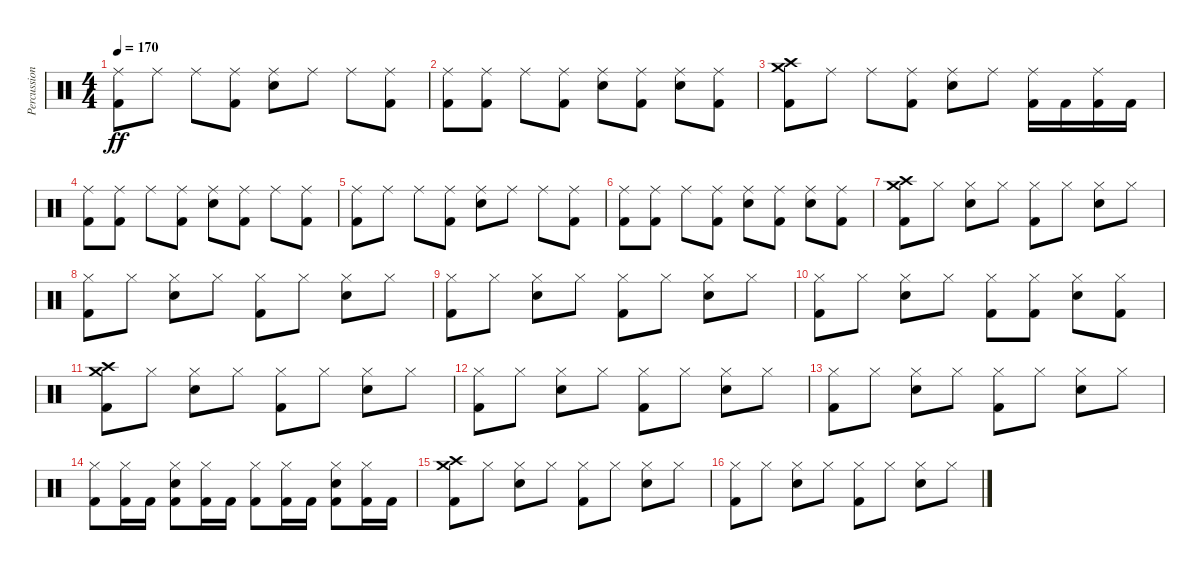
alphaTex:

\track ("Percussion" "Percussion") {instrument percussion}
\staff {score}
\articulation defaults
\ts (4 4)
\tempo 170
\clef neutral
\ks c
("Kick (hit) 2" "Ride (middle)").8{dy ff} "Ride (middle)".8 "Ride (middle)".8 ("Kick (hit) 2" "Ride (middle)").8 ("Electric Snare (hit)" "Ride (middle)").8 "Ride (middle)".8 "Ride (middle)".8 ("Kick (hit) 2" "Ride (middle)").8 |
("Kick (hit) 2" "Ride (middle)").8 ("Kick (hit) 2" "Ride (middle)").8 "Ride (middle)".8 ("Kick (hit) 2" "Ride (middle)").8 ("Electric Snare (hit)" "Ride (middle)").8 ("Kick (hit) 2" "Ride (middle)").8 ("Electric Snare (hit)" "Ride (middle)").8 ("Kick (hit) 2" "Ride (middle)").8 |
("Kick (hit) 2" "Crash high (hit)" "Crash medium (hit)").8 "Ride (middle)".8 "Ride (middle)".8 ("Kick (hit) 2" "Ride (middle)").8 ("Electric Snare (hit)" "Ride (middle)").8 "Ride (middle)".8 ("Kick (hit) 2" "Ride (middle)").16 "Kick (hit) 2".16 ("Kick (hit) 2" "Ride (middle)").16 "Kick (hit) 2".16 |
("Kick (hit) 2" "Ride (middle)").8 ("Kick (hit) 2" "Ride (middle)").8 "Ride (middle)".8 ("Kick (hit) 2" "Ride (middle)").8 ("Electric Snare (hit)" "Ride (middle)").8 ("Kick (hit) 2" "Ride (middle)").8 "Ride (middle)".8 ("Kick (hit) 2" "Ride (middle)").8 |
("Kick (hit) 2" "Ride (middle)").8 "Ride (middle)".8 "Ride (middle)".8 ("Kick (hit) 2" "Ride (middle)").8 ("Electric Snare (hit)" "Ride (middle)").8 "Ride (middle)".8 "Ride (middle)".8 ("Kick (hit) 2" "Ride (middle)").8 |
("Kick (hit) 2" "Ride (middle)").8 ("Kick (hit) 2" "Ride (middle)").8 "Ride (middle)".8 ("Kick (hit) 2" "Ride (middle)").8 ("Electric Snare (hit)" "Ride (middle)").8 ("Kick (hit) 2" "Ride (middle)").8 ("Electric Snare (hit)" "Ride (middle)").8 ("Kick (hit) 2" "Ride (middle)").8 |
("Kick (hit) 2" "Crash medium (hit)" "Crash high (hit)").8 "Hi-Hat (closed)".8 ("Electric Snare (hit)" "Hi-Hat (closed)").8 "Hi-Hat (closed)".8 ("Kick (hit) 2" "Hi-Hat (closed)").8 "Hi-Hat (closed)".8 ("Electric Snare (hit)" "Hi-Hat (closed)").8 "Hi-Hat (closed)".8 |
("Kick (hit) 2" "Hi-Hat (closed)").8 "Hi-Hat (closed)".8 ("Electric Snare (hit)" "Hi-Hat (closed)").8 "Hi-Hat (closed)".8 ("Kick (hit) 2" "Hi-Hat (closed)").8 "Hi-Hat (closed)".8 ("Electric Snare (hit)" "Hi-Hat (closed)").8 "Hi-Hat (closed)".8 |
("Kick (hit) 2" "Hi-Hat (closed)").8 "Hi-Hat (closed)".8 ("Electric Snare (hit)" "Hi-Hat (closed)").8 "Hi-Hat (closed)".8 ("Kick (hit) 2" "Hi-Hat (closed)").8 "Hi-Hat (closed)".8 ("Electric Snare (hit)" "Hi-Hat (closed)").8 "Hi-Hat (closed)".8 |
("Kick (hit) 2" "Hi-Hat (closed)").8 "Hi-Hat (closed)".8 ("Electric Snare (hit)" "Hi-Hat (closed)").8 "Hi-Hat (closed)".8 ("Kick (hit) 2" "Hi-Hat (closed)").8 ("Kick (hit) 2" "Hi-Hat (closed)").8 ("Electric Snare (hit)" "Hi-Hat (closed)").8 ("Kick (hit) 2" "Hi-Hat (closed)").8 |
("Kick (hit) 2" "Crash medium (hit)" "Crash high (hit)").8 "Hi-Hat (closed)".8 ("Electric Snare (hit)" "Hi-Hat (closed)").8 "Hi-Hat (closed)".8 ("Kick (hit) 2" "Hi-Hat (closed)").8 "Hi-Hat (closed)".8 ("Electric Snare (hit)" "Hi-Hat (closed)").8 "Hi-Hat (closed)".8 |
("Kick (hit) 2" "Hi-Hat (closed)").8 "Hi-Hat (closed)".8 ("Electric Snare (hit)" "Hi-Hat (closed)").8 "Hi-Hat (closed)".8 ("Kick (hit) 2" "Hi-Hat (closed)").8 "Hi-Hat (closed)".8 ("Electric Snare (hit)" "Hi-Hat (closed)").8 "Hi-Hat (closed)".8 |
("Kick (hit) 2" "Hi-Hat (closed)").8 "Hi-Hat (closed)".8 ("Electric Snare (hit)" "Hi-Hat (closed)").8 "Hi-Hat (closed)".8 ("Kick (hit) 2" "Hi-Hat (closed)").8 "Hi-Hat (closed)".8 ("Electric Snare (hit)" "Hi-Hat (closed)").8 "Hi-Hat (closed)".8 |
("Kick (hit) 2" "Hi-Hat (closed)").8 ("Kick (hit) 2" "Hi-Hat (closed)").16 "Kick (hit) 2".16 ("Kick (hit) 2" "Electric Snare (hit)" "Hi-Hat (closed)").8 ("Kick (hit) 2" "Hi-Hat (closed)").16 "Kick (hit) 2".16 ("Kick (hit) 2" "Hi-Hat (closed)").8 ("Kick (hit) 2" "Hi-Hat (closed)").16 "Kick (hit) 2".16 ("Kick (hit) 2" "Electric Snare (hit)" "Hi-Hat (closed)").8 ("Kick (hit) 2" "Hi-Hat (closed)").16 "Kick (hit) 2".16 |
("Kick (hit) 2" "Crash medium (hit)" "Crash high (hit)").8 "Hi-Hat (closed)".8 ("Electric Snare (hit)" "Hi-Hat (closed)").8 "Hi-Hat (closed)".8 ("Kick (hit) 2" "Hi-Hat (closed)").8 "Hi-Hat (closed)".8 ("Electric Snare (hit)" "Hi-Hat (closed)").8 "Hi-Hat (closed)".8 |
("Kick (hit) 2" "Hi-Hat (closed)").8 "Hi-Hat (closed)".8 ("Electric Snare (hit)" "Hi-Hat (closed)").8 "Hi-Hat (closed)".8 ("Kick (hit) 2" "Hi-Hat (closed)").8 "Hi-Hat (closed)".8 ("Electric Snare (hit)" "Hi-Hat (closed)").8 "Hi-Hat (closed)".8
